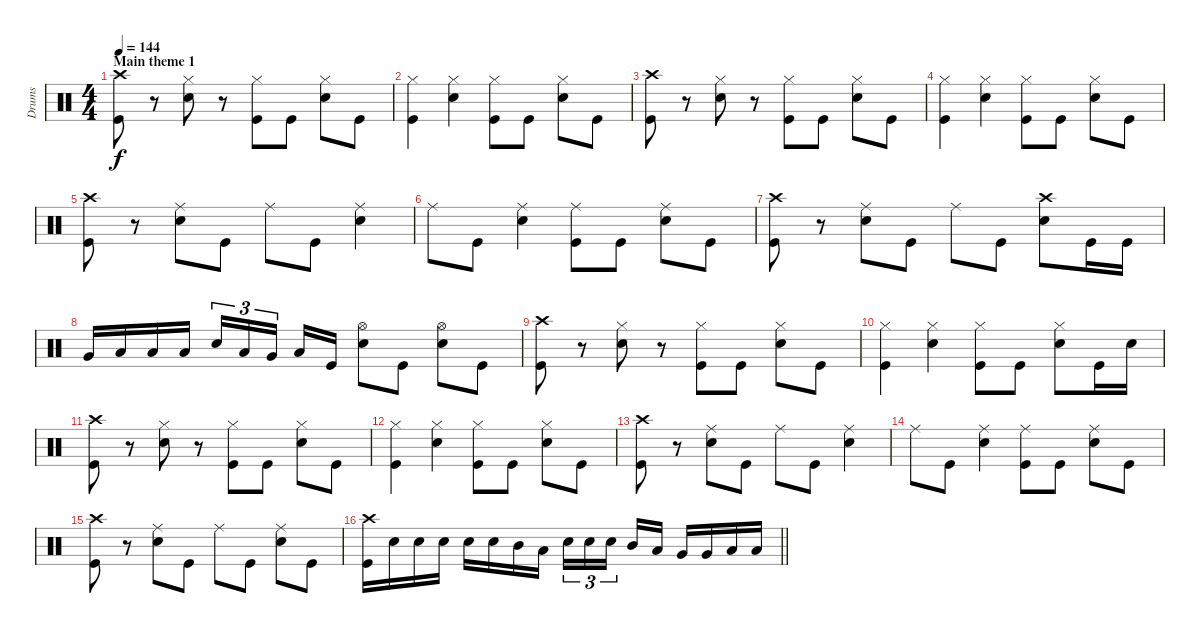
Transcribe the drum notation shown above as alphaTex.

\track ("Drums" "Drums") {instrument percussion}
\staff {score}
\articulation defaults
\ts (4 4)
\section ("" "Main theme 1")
\tempo 144
\clef neutral
\ks c
("Crash high (hit)" "Kick (hit)").8{dy f} r.8 ("Hi-Hat (closed)" "Electric Snare (hit)").8 r.8 ("Hi-Hat (closed)" "Kick (hit)").8 "Kick (hit)".8 ("Hi-Hat (closed)" "Electric Snare (hit)").8 "Kick (hit)".8 |
("Hi-Hat (closed)" "Kick (hit)").4 ("Hi-Hat (closed)" "Electric Snare (hit)").4 ("Hi-Hat (closed)" "Kick (hit)").8 "Kick (hit)".8 ("Hi-Hat (closed)" "Electric Snare (hit)").8 "Kick (hit)".8 |
("Crash high (hit)" "Kick (hit)").8 r.8 ("Hi-Hat (closed)" "Electric Snare (hit)").8 r.8 ("Hi-Hat (closed)" "Kick (hit)").8 "Kick (hit)".8 ("Hi-Hat (closed)" "Electric Snare (hit)").8 "Kick (hit)".8 |
("Hi-Hat (closed)" "Kick (hit)").4 ("Hi-Hat (closed)" "Electric Snare (hit)").4 ("Hi-Hat (closed)" "Kick (hit)").8 "Kick (hit)".8 ("Hi-Hat (closed)" "Electric Snare (hit)").8 "Kick (hit)".8 |
("Crash high (hit)" "Kick (hit)").8 r.8 ("Ride (middle)" "Electric Snare (hit)").8 "Kick (hit)".8 "Ride (middle)".8 "Kick (hit)".8 ("Ride (middle)" "Electric Snare (hit)").4 |
"Ride (middle)".8 "Kick (hit)".8 ("Ride (middle)" "Electric Snare (hit)").4 ("Ride (middle)" "Kick (hit)").8 "Kick (hit)".8 ("Ride (middle)" "Electric Snare (hit)").8 "Kick (hit)".8 |
("Crash high (hit)" "Kick (hit)").8 r.8 ("Ride (middle)" "Electric Snare (hit)").8 "Kick (hit)".8 "Ride (middle)".8 "Kick (hit)".8 ("Crash high (hit)" "Electric Snare (hit)").8 "Kick (hit)".16 "Kick (hit)".16 |
"Very Low Tom (hit)".16 "Low Floor Tom (hit)".16 "Low Floor Tom (hit)".16 "Low Floor Tom (hit)".16 "Electric Snare (hit)".16{tu (3 2)} "Low Tom (hit)".16{tu (3 2)} "Very Low Tom (hit)".16{tu (3 2) beam splitsecondary} "Low Floor Tom (hit)".16 "Kick (hit)".16 ("Hi-Hat (open)" "Electric Snare (hit)").8 "Kick (hit)".8 ("Hi-Hat (open)" "Electric Snare (hit)").8 "Kick (hit)".8 |
("Crash high (hit)" "Kick (hit)").8 r.8 ("Hi-Hat (closed)" "Electric Snare (hit)").8 r.8 ("Hi-Hat (closed)" "Kick (hit)").8 "Kick (hit)".8 ("Hi-Hat (closed)" "Electric Snare (hit)").8 "Kick (hit)".8 |
("Hi-Hat (closed)" "Kick (hit)").4 ("Hi-Hat (closed)" "Electric Snare (hit)").4 ("Hi-Hat (closed)" "Kick (hit)").8 "Kick (hit)".8 ("Hi-Hat (closed)" "Electric Snare (hit)").8 "Kick (hit)".16 "Electric Snare (hit)".16 |
("Crash high (hit)" "Kick (hit)").8 r.8 ("Hi-Hat (closed)" "Electric Snare (hit)").8 r.8 ("Hi-Hat (closed)" "Kick (hit)").8 "Kick (hit)".8 ("Hi-Hat (closed)" "Electric Snare (hit)").8 "Kick (hit)".8 |
("Hi-Hat (closed)" "Kick (hit)").4 ("Hi-Hat (closed)" "Electric Snare (hit)").4 ("Hi-Hat (closed)" "Kick (hit)").8 "Kick (hit)".8 ("Hi-Hat (closed)" "Electric Snare (hit)").8 "Kick (hit)".8 |
("Crash high (hit)" "Kick (hit)").8 r.8 ("Ride (middle)" "Electric Snare (hit)").8 "Kick (hit)".8 "Ride (middle)".8 "Kick (hit)".8 ("Ride (middle)" "Electric Snare (hit)").4 |
"Ride (middle)".8 "Kick (hit)".8 ("Ride (middle)" "Electric Snare (hit)").4 ("Ride (middle)" "Kick (hit)").8 "Kick (hit)".8 ("Ride (middle)" "Electric Snare (hit)").8 "Kick (hit)".8 |
("Crash high (hit)" "Kick (hit)").8 r.8 ("Ride (middle)" "Electric Snare (hit)").8 "Kick (hit)".8 "Ride (middle)".8 "Kick (hit)".8 ("Ride (middle)" "Electric Snare (hit)").8 "Kick (hit)".8 |
\barLineRight lightlight
("Crash high (hit)" "Kick (hit)").16 "Electric Snare (hit)".16 "Electric Snare (hit)".16 "Electric Snare (hit)".16 "Electric Snare (hit)".16 "Electric Snare (hit)".16 "Mid Tom (hit)".16 "Low Tom (hit)".16 "Electric Snare (hit)".16{tu (3 2)} "Electric Snare (hit)".16{tu (3 2)} "Electric Snare (hit)".16{tu (3 2) beam splitsecondary} "Mid Tom (hit)".16 "Low Tom (hit)".16 "Very Low Tom (hit)".16 "Very Low Tom (hit)".16 "Low Floor Tom (hit)".16 "Low Floor Tom (hit)".16
